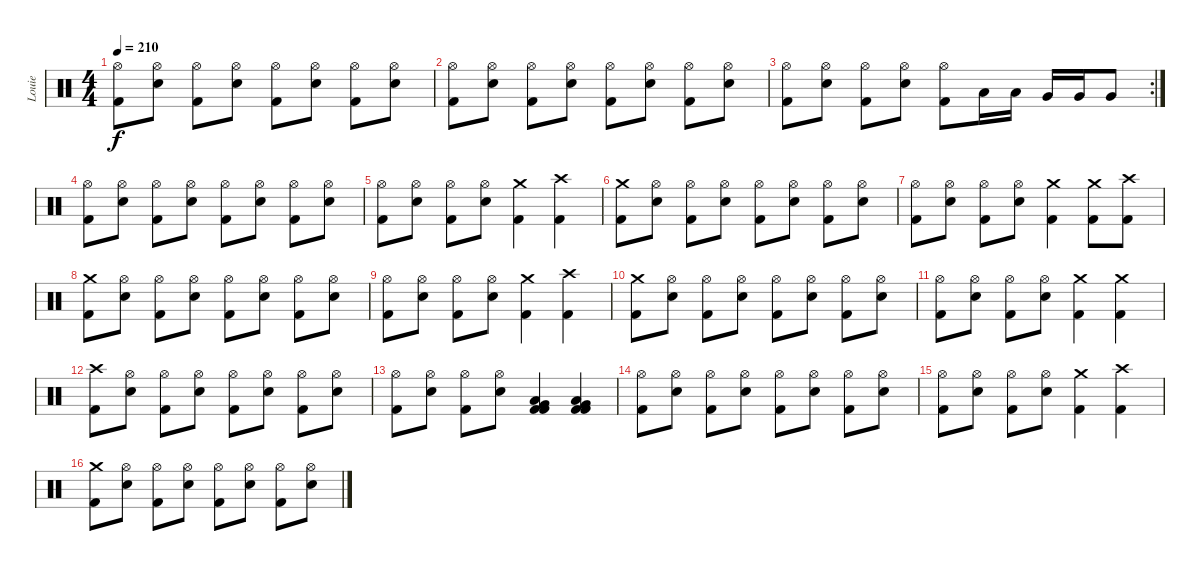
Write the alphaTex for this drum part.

\track ("Louie" "Louie") {instrument percussion}
\staff {score}
\articulation defaults
\ts (4 4)
\tempo 210
\clef neutral
\ks c
("Hi-Hat (open)" "Kick (hit) 2").8{dy f} ("Hi-Hat (open)" "Snare (hit) 2").8 ("Hi-Hat (open)" "Kick (hit) 2").8 ("Hi-Hat (open)" "Snare (hit) 2").8 ("Hi-Hat (open)" "Kick (hit) 2").8 ("Hi-Hat (open)" "Snare (hit) 2").8 ("Hi-Hat (open)" "Kick (hit) 2").8 ("Hi-Hat (open)" "Snare (hit) 2").8 |
("Hi-Hat (open)" "Kick (hit) 2").8 ("Hi-Hat (open)" "Snare (hit) 2").8 ("Hi-Hat (open)" "Kick (hit) 2").8 ("Hi-Hat (open)" "Snare (hit) 2").8 ("Hi-Hat (open)" "Kick (hit) 2").8 ("Hi-Hat (open)" "Snare (hit) 2").8 ("Hi-Hat (open)" "Kick (hit) 2").8 ("Hi-Hat (open)" "Snare (hit) 2").8 |
\rc 2
("Hi-Hat (open)" "Kick (hit) 2").8 ("Hi-Hat (open)" "Snare (hit) 2").8 ("Hi-Hat (open)" "Kick (hit) 2").8 ("Hi-Hat (open)" "Snare (hit) 2").8 ("Hi-Hat (open)" "Kick (hit) 2").8 "Low Tom (hit)".16 "Low Tom (hit)".16 "Very Low Tom (hit)".16 "Very Low Tom (hit)".16 "Very Low Tom (hit)".8 |
("Hi-Hat (open)" "Kick (hit) 2").8 ("Hi-Hat (open)" "Snare (hit) 2").8 ("Hi-Hat (open)" "Kick (hit) 2").8 ("Hi-Hat (open)" "Snare (hit) 2").8 ("Hi-Hat (open)" "Kick (hit) 2").8 ("Hi-Hat (open)" "Snare (hit) 2").8 ("Hi-Hat (open)" "Kick (hit) 2").8 ("Hi-Hat (open)" "Snare (hit) 2").8 |
("Hi-Hat (open)" "Kick (hit) 2").8 ("Hi-Hat (open)" "Snare (hit) 2").8 ("Hi-Hat (open)" "Kick (hit) 2").8 ("Hi-Hat (open)" "Snare (hit) 2").8 ("Crash medium (hit)" "Kick (hit) 2").4 ("Crash high (hit)" "Kick (hit) 2").4 |
("Crash medium (hit)" "Kick (hit) 2").8 ("Hi-Hat (open)" "Snare (hit) 2").8 ("Hi-Hat (open)" "Kick (hit) 2").8 ("Hi-Hat (open)" "Snare (hit) 2").8 ("Hi-Hat (open)" "Kick (hit) 2").8 ("Hi-Hat (open)" "Snare (hit) 2").8 ("Hi-Hat (open)" "Kick (hit) 2").8 ("Hi-Hat (open)" "Snare (hit) 2").8 |
("Hi-Hat (open)" "Kick (hit) 2").8 ("Hi-Hat (open)" "Snare (hit) 2").8 ("Hi-Hat (open)" "Kick (hit) 2").8 ("Hi-Hat (open)" "Snare (hit) 2").8 ("Crash medium (hit)" "Kick (hit) 2").4 ("Crash medium (hit)" "Kick (hit) 2").8 ("Crash high (hit)" "Kick (hit) 2").8 |
("Crash medium (hit)" "Kick (hit) 2").8 ("Hi-Hat (open)" "Snare (hit) 2").8 ("Hi-Hat (open)" "Kick (hit) 2").8 ("Hi-Hat (open)" "Snare (hit) 2").8 ("Hi-Hat (open)" "Kick (hit) 2").8 ("Hi-Hat (open)" "Snare (hit) 2").8 ("Hi-Hat (open)" "Kick (hit) 2").8 ("Hi-Hat (open)" "Snare (hit) 2").8 |
("Hi-Hat (open)" "Kick (hit) 2").8 ("Hi-Hat (open)" "Snare (hit) 2").8 ("Hi-Hat (open)" "Kick (hit) 2").8 ("Hi-Hat (open)" "Snare (hit) 2").8 ("Crash medium (hit)" "Kick (hit) 2").4 ("Crash high (hit)" "Kick (hit) 2").4 |
("Crash medium (hit)" "Kick (hit) 2").8 ("Hi-Hat (open)" "Snare (hit) 2").8 ("Hi-Hat (open)" "Kick (hit) 2").8 ("Hi-Hat (open)" "Snare (hit) 2").8 ("Hi-Hat (open)" "Kick (hit) 2").8 ("Hi-Hat (open)" "Snare (hit) 2").8 ("Hi-Hat (open)" "Kick (hit) 2").8 ("Hi-Hat (open)" "Snare (hit) 2").8 |
("Hi-Hat (open)" "Kick (hit) 2").8 ("Hi-Hat (open)" "Snare (hit) 2").8 ("Hi-Hat (open)" "Kick (hit) 2").8 ("Hi-Hat (open)" "Snare (hit) 2").8 ("Crash medium (hit)" "Kick (hit) 2").4 ("Crash medium (hit)" "Kick (hit) 2").4 |
("Crash high (hit)" "Kick (hit) 2").8 ("Hi-Hat (open)" "Snare (hit) 2").8 ("Hi-Hat (open)" "Kick (hit) 2").8 ("Hi-Hat (open)" "Snare (hit) 2").8 ("Hi-Hat (open)" "Kick (hit) 2").8 ("Hi-Hat (open)" "Snare (hit) 2").8 ("Hi-Hat (open)" "Kick (hit) 2").8 ("Hi-Hat (open)" "Snare (hit) 2").8 |
("Hi-Hat (open)" "Kick (hit) 2").8 ("Hi-Hat (open)" "Snare (hit) 2").8 ("Hi-Hat (open)" "Kick (hit) 2").8 ("Hi-Hat (open)" "Snare (hit) 2").8 ("Low Tom (hit)" "Very Low Tom (hit)" "Kick (hit) 2" "Kick (hit) 2").4 ("Low Tom (hit)" "Very Low Tom (hit)" "Kick (hit) 2" "Kick (hit) 2").4 |
("Hi-Hat (open)" "Kick (hit) 2").8 ("Hi-Hat (open)" "Snare (hit) 2").8 ("Hi-Hat (open)" "Kick (hit) 2").8 ("Hi-Hat (open)" "Snare (hit) 2").8 ("Hi-Hat (open)" "Kick (hit) 2").8 ("Hi-Hat (open)" "Snare (hit) 2").8 ("Hi-Hat (open)" "Kick (hit) 2").8 ("Hi-Hat (open)" "Snare (hit) 2").8 |
("Hi-Hat (open)" "Kick (hit) 2").8 ("Hi-Hat (open)" "Snare (hit) 2").8 ("Hi-Hat (open)" "Kick (hit) 2").8 ("Hi-Hat (open)" "Snare (hit) 2").8 ("Crash medium (hit)" "Kick (hit) 2").4 ("Crash high (hit)" "Kick (hit) 2").4 |
("Crash medium (hit)" "Kick (hit) 2").8 ("Hi-Hat (open)" "Snare (hit) 2").8 ("Hi-Hat (open)" "Kick (hit) 2").8 ("Hi-Hat (open)" "Snare (hit) 2").8 ("Hi-Hat (open)" "Kick (hit) 2").8 ("Hi-Hat (open)" "Snare (hit) 2").8 ("Hi-Hat (open)" "Kick (hit) 2").8 ("Hi-Hat (open)" "Snare (hit) 2").8
